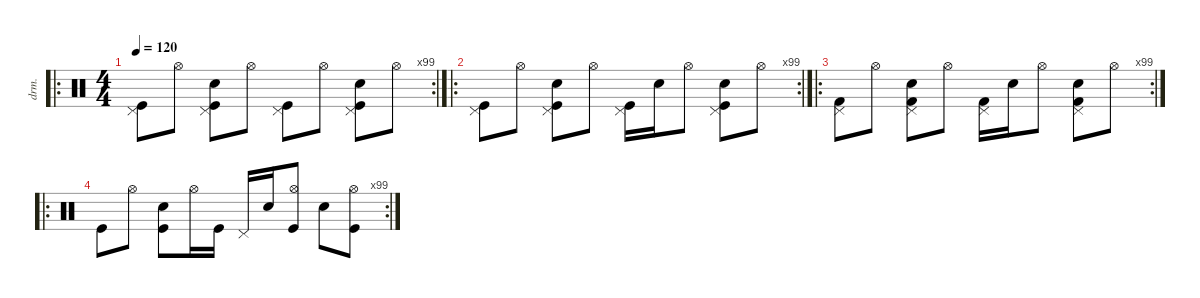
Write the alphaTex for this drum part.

\defaultSystemsLayout 4
\hideDynamics
\bracketExtendMode nobrackets
\otherSystemsTrackNameOrientation horizontal
\track ("Drumkit" "drm.") {instrument percussion}
\staff {score}
\articulation defaults
\ro
\rc 99
\ts (4 4)
\tempo 120
\clef neutral
\ks c
("Kick (hit)" "Pedal Hi-Hat (hit)").8{dy mf beam Down} "Hi-Hat (open)".8{beam Down} ("Kick (hit)" "Snare (hit) 2" "Pedal Hi-Hat (hit)").8{beam Down} "Hi-Hat (open)".8{beam Down} ("Kick (hit)" "Pedal Hi-Hat (hit)").8{beam Down} "Hi-Hat (open)".8{beam Down} ("Kick (hit)" "Snare (hit) 2" "Pedal Hi-Hat (hit)").8{beam Down} "Hi-Hat (open)".8{beam Down} |
\ro
\rc 99
("Kick (hit)" "Pedal Hi-Hat (hit)").8{beam Down} "Hi-Hat (open)".8{beam Down} ("Kick (hit)" "Snare (hit) 2" "Pedal Hi-Hat (hit)").8{beam Down} "Hi-Hat (open)".8{beam Down} ("Kick (hit)" "Pedal Hi-Hat (hit)").16{beam Down} "Snare (hit) 2".16{beam Down} "Hi-Hat (open)".8{beam Down} ("Kick (hit)" "Snare (hit) 2" "Pedal Hi-Hat (hit)").8{beam Down} "Hi-Hat (open)".8{beam Down} |
\ro
\rc 99
("Kick (hit) 2" "Pedal Hi-Hat (hit)").8{beam Down} "Hi-Hat (open)".8{beam Down} ("Kick (hit) 2" "Hand Clap (hit)" "Pedal Hi-Hat (hit)").8{beam Down} "Hi-Hat (open)".8{beam Down} ("Kick (hit) 2" "Pedal Hi-Hat (hit)").16{beam Down} "Hand Clap (hit)".16{beam Down} "Hi-Hat (open)".8{beam Down} ("Kick (hit) 2" "Hand Clap (hit)" "Pedal Hi-Hat (hit)").8{beam Down} "Hi-Hat (open)".8{beam Down} |
\ro
\rc 99 "Kick (hit)".8{beam Down} "Hi-Hat (open)".8{beam Down}
("Kick (hit)" "Snare (hit) 2").8{beam Down} "Hi-Hat (open)".16{beam Down} "Kick (hit)".16{beam Down} "Pedal Hi-Hat (hit)".16{beam Up} "Snare (hit) 2".16{beam Up} ("Kick (hit)" "Hi-Hat (open)").8{beam Up} "Snare (hit) 2".8{beam Down} ("Kick (hit)" "Hi-Hat (open)").8{beam Down}
